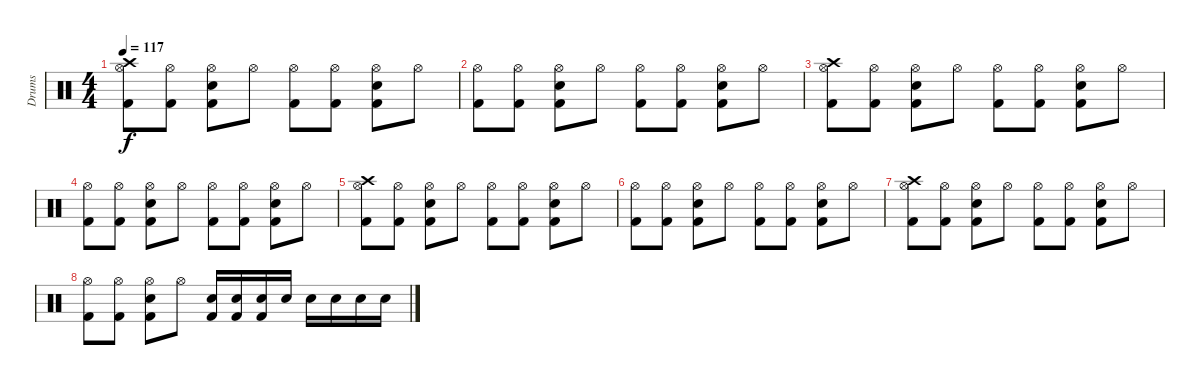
\track ("Drums" "Drums") {instrument percussion}
\staff {score}
\articulation defaults
\ts (4 4)
\tempo 117
\clef neutral
\ks c
("Kick (hit) 2" "Hi-Hat (open)" "Crash high (hit)").8{dy f} ("Kick (hit) 2" "Hi-Hat (open)").8 ("Kick (hit) 2" "Hi-Hat (open)" "Snare (hit) 2").8 "Hi-Hat (open)".8 ("Kick (hit) 2" "Hi-Hat (open)").8 ("Kick (hit) 2" "Hi-Hat (open)").8 ("Kick (hit) 2" "Hi-Hat (open)" "Snare (hit) 2").8 "Hi-Hat (open)".8 |
("Kick (hit) 2" "Hi-Hat (open)").8 ("Kick (hit) 2" "Hi-Hat (open)").8 ("Kick (hit) 2" "Hi-Hat (open)" "Snare (hit) 2").8 "Hi-Hat (open)".8 ("Kick (hit) 2" "Hi-Hat (open)").8 ("Kick (hit) 2" "Hi-Hat (open)").8 ("Kick (hit) 2" "Hi-Hat (open)" "Snare (hit) 2").8 "Hi-Hat (open)".8 |
("Kick (hit) 2" "Hi-Hat (open)" "Crash high (hit)").8 ("Kick (hit) 2" "Hi-Hat (open)").8 ("Kick (hit) 2" "Hi-Hat (open)" "Snare (hit) 2").8 "Hi-Hat (open)".8 ("Kick (hit) 2" "Hi-Hat (open)").8 ("Kick (hit) 2" "Hi-Hat (open)").8 ("Kick (hit) 2" "Hi-Hat (open)" "Snare (hit) 2").8 "Hi-Hat (open)".8 |
("Kick (hit) 2" "Hi-Hat (open)").8 ("Kick (hit) 2" "Hi-Hat (open)").8 ("Kick (hit) 2" "Hi-Hat (open)" "Snare (hit) 2").8 "Hi-Hat (open)".8 ("Kick (hit) 2" "Hi-Hat (open)").8 ("Kick (hit) 2" "Hi-Hat (open)").8 ("Kick (hit) 2" "Hi-Hat (open)" "Snare (hit) 2").8 "Hi-Hat (open)".8 |
("Kick (hit) 2" "Hi-Hat (open)" "Crash high (hit)").8 ("Kick (hit) 2" "Hi-Hat (open)").8 ("Kick (hit) 2" "Hi-Hat (open)" "Snare (hit) 2").8 "Hi-Hat (open)".8 ("Kick (hit) 2" "Hi-Hat (open)").8 ("Kick (hit) 2" "Hi-Hat (open)").8 ("Kick (hit) 2" "Hi-Hat (open)" "Snare (hit) 2").8 "Hi-Hat (open)".8 |
("Kick (hit) 2" "Hi-Hat (open)").8 ("Kick (hit) 2" "Hi-Hat (open)").8 ("Kick (hit) 2" "Hi-Hat (open)" "Snare (hit) 2").8 "Hi-Hat (open)".8 ("Kick (hit) 2" "Hi-Hat (open)").8 ("Kick (hit) 2" "Hi-Hat (open)").8 ("Kick (hit) 2" "Hi-Hat (open)" "Snare (hit) 2").8 "Hi-Hat (open)".8 |
("Kick (hit) 2" "Hi-Hat (open)" "Crash high (hit)").8 ("Kick (hit) 2" "Hi-Hat (open)").8 ("Kick (hit) 2" "Hi-Hat (open)" "Snare (hit) 2").8 "Hi-Hat (open)".8 ("Kick (hit) 2" "Hi-Hat (open)").8 ("Kick (hit) 2" "Hi-Hat (open)").8 ("Kick (hit) 2" "Hi-Hat (open)" "Snare (hit) 2").8 "Hi-Hat (open)".8 |
("Kick (hit) 2" "Hi-Hat (open)").8 ("Kick (hit) 2" "Hi-Hat (open)").8 ("Kick (hit) 2" "Hi-Hat (open)" "Snare (hit) 2").8 "Hi-Hat (open)".8 ("Kick (hit) 2" "Snare (hit) 2").16 ("Kick (hit) 2" "Snare (hit) 2").16 ("Kick (hit) 2" "Snare (hit) 2").16 "Snare (hit) 2".16 "Snare (hit) 2".16 "Snare (hit) 2".16 "Snare (hit) 2".16 "Snare (hit) 2".16
